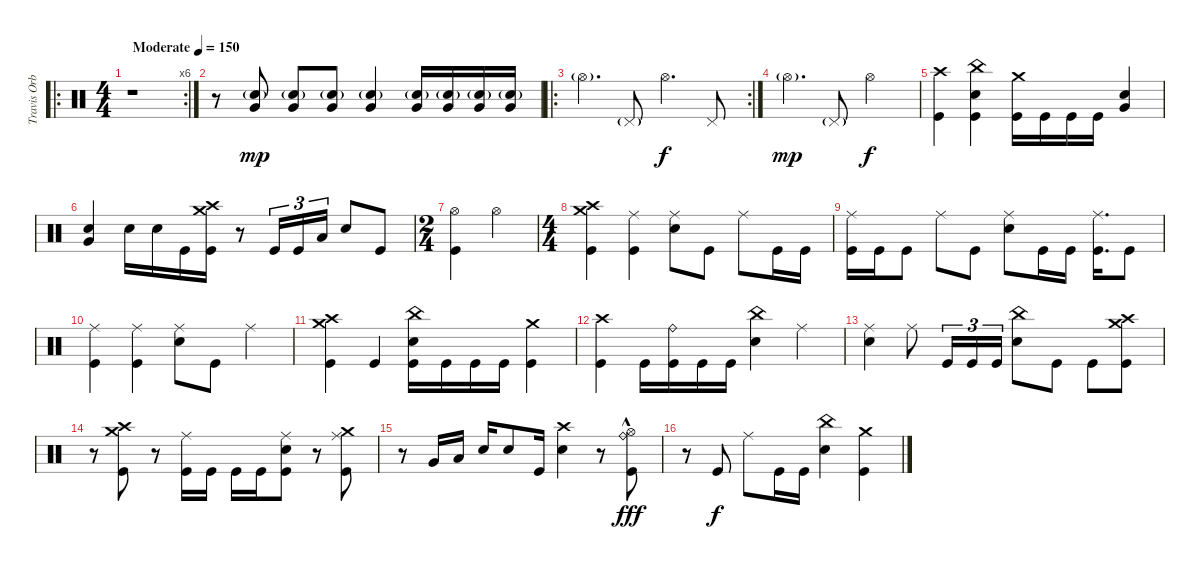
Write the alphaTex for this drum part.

\track ("Travis Orbin" "Travis Orb") {instrument percussion}
\staff {score}
\articulation defaults
\ro
\rc 6
\ts (4 4)
\tempo (150 "Moderate")
\clef neutral
\ks c
r.1{dy mp} |
r.8 ("Electric Snare (hit)"{g} "Very Low Tom (hit)").8 ("Electric Snare (hit)"{g} "Very Low Tom (hit)").8 ("Electric Snare (hit)"{g} "Very Low Tom (hit)").8 ("Electric Snare (hit)"{g} "Very Low Tom (hit)").4 ("Electric Snare (hit)"{g} "Very Low Tom (hit)").16 ("Electric Snare (hit)"{g} "Very Low Tom (hit)").16 ("Electric Snare (hit)"{g} "Very Low Tom (hit)").16 ("Electric Snare (hit)"{g} "Very Low Tom (hit)").16 |
\ro
\rc 2 "Hi-Hat (open)"{g}.4{d} "Pedal Hi-Hat (hit)"{g}.8 "Hi-Hat (open)".4{d dy f} "Pedal Hi-Hat (hit)".8
|
"Hi-Hat (open)"{g}.4{d dy mp} "Pedal Hi-Hat (hit)"{g}.8 "Hi-Hat (open)".2{dy f} |
("Crash high (hit)" "Kick (hit)").4 ("China (hit)" "Electric Snare (hit)" "Kick (hit)").4 ("Crash medium (hit)" "Kick (hit)").16 "Kick (hit)".16 "Kick (hit)".16 "Kick (hit)".16 ("Electric Snare (hit)" "Very Low Tom (hit)").4 |
("Electric Snare (hit)" "Very Low Tom (hit)").4 "Electric Snare (hit)".16 "Electric Snare (hit)".16 "Kick (hit)".16 ("Crash high (hit)" "Crash medium (hit)" "Kick (hit)").16 r.8 "Kick (hit)".16{tu (3 2)} "Kick (hit)".16{tu (3 2)} "Low Tom (hit)".16{tu (3 2)} "Electric Snare (hit)".8 "Kick (hit)".8 |
\ts (2 4)
("Hi-Hat (open)" "Kick (hit)").4 "Hi-Hat (open)".4 |
\ts (4 4)
("Crash high (hit)" "Crash medium (hit)" "Kick (hit)").4 ("Ride (middle)" "Kick (hit)").4 ("Ride (middle)" "Electric Snare (hit)").8 "Kick (hit)".8 "Ride (middle)".8 "Kick (hit)".16 "Kick (hit)".16 |
("Ride (middle)" "Kick (hit)").16 "Kick (hit)".16 "Kick (hit)".8 "Ride (middle)".8 "Kick (hit)".8 ("Ride (middle)" "Electric Snare (hit)").8 "Kick (hit)".16 "Kick (hit)".16 ("Ride (middle)" "Kick (hit)").16{d} "Kick (hit)".8 |
("Ride (middle)" "Kick (hit)").4 ("Ride (middle)" "Kick (hit)").4 ("Ride (middle)" "Electric Snare (hit)").8 "Kick (hit)".8 "Ride (middle)".4 |
("Crash high (hit)" "Crash medium (hit)" "Kick (hit)").4 "Kick (hit)".4 ("China (hit)" "Electric Snare (hit)" "Kick (hit)").16 "Kick (hit)".16 "Kick (hit)".16 "Kick (hit)".16 ("Crash medium (hit)" "Kick (hit)").4 |
("Crash high (hit)" "Kick (hit)").4 "Kick (hit)".16 ("Ride (bell)" "Kick (hit)").16 "Kick (hit)".16 "Kick (hit)".16 ("China (hit)" "Electric Snare (hit)").4 "Ride (middle)".4 |
("Ride (middle)" "Snare (hit)").4 "Ride (middle)".8 "Kick (hit)".16{tu (3 2)} "Kick (hit)".16{tu (3 2)} "Kick (hit)".16{tu (3 2)} ("China (hit)" "Electric Snare (hit)").8 "Kick (hit)".8 "Kick (hit)".8 ("Crash high (hit)" "Crash medium (hit)" "Kick (hit)").8 |
r.8 ("Crash high (hit)" "Crash medium (hit)" "Kick (hit)").8 r.8 ("Ride (middle)" "Kick (hit)").16 "Kick (hit)".16 "Kick (hit)".16 "Kick (hit)".16 ("Ride (middle)" "Electric Snare (hit)" "Kick (hit)").8 r.8 ("Ride (middle)" "Crash medium (hit)" "Kick (hit)").8 |
r.8 "Very Low Tom (hit)".16 "Low Tom (hit)".16 "Electric Snare (hit)".16 "Electric Snare (hit)".8 "Kick (hit)".16 ("Crash high (hit)" "Electric Snare (hit)").4 r.8 ("Hi-Hat (open)"{hac} "Ride (bell)" "Kick (hit)").8{dy fff} |
r.8 "Kick (hit)".8{dy f} "Ride (middle)".8 "Kick (hit)".16 "Kick (hit)".16 ("China (hit)" "Electric Snare (hit)").4 ("Crash medium (hit)" "Kick (hit)").4
